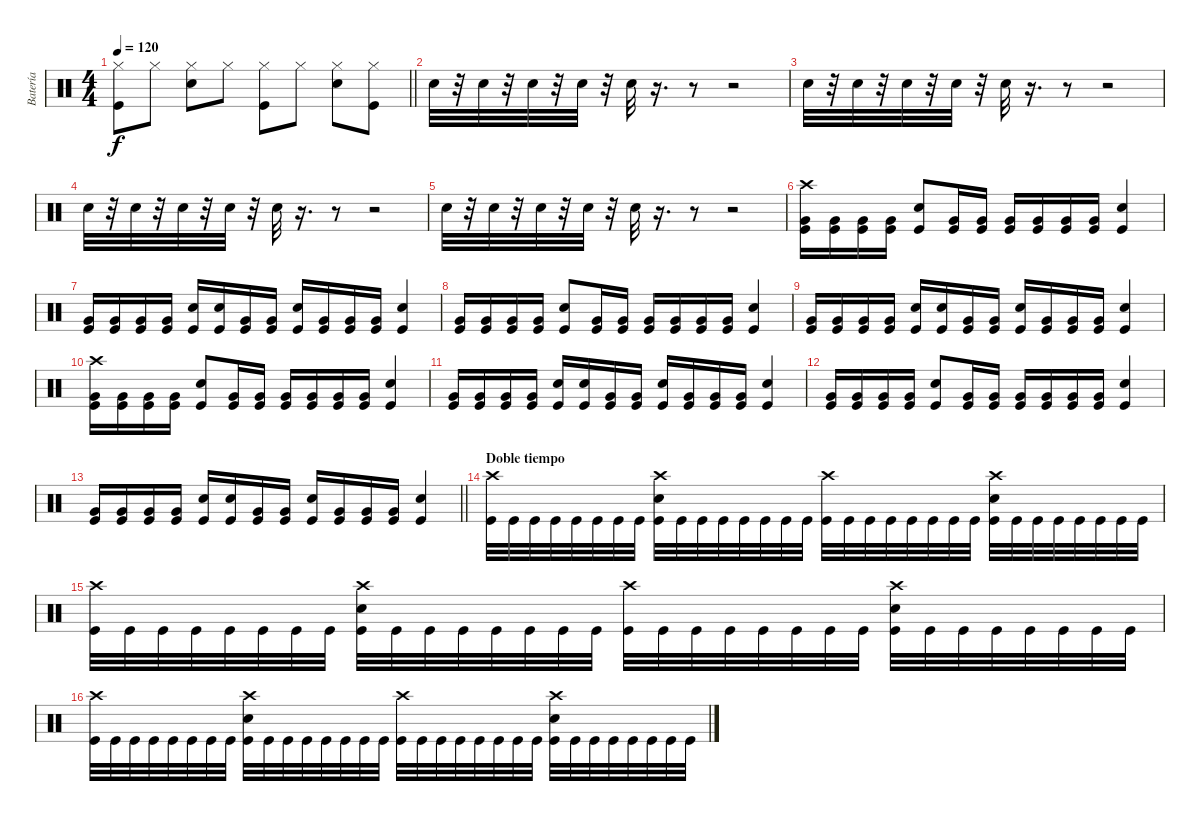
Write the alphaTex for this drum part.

\track ("Batería" "Batería") {instrument percussion}
\staff {score}
\articulation defaults
\ts (4 4)
\tempo 120
\clef neutral
\barLineRight lightlight
\ks c
("Kick (hit)" "Hi-Hat (closed)").8{dy f} "Hi-Hat (closed)".8 ("Electric Snare (hit)" "Hi-Hat (closed)").8 "Hi-Hat (closed)".8 ("Kick (hit)" "Hi-Hat (closed)").8 "Hi-Hat (closed)".8 ("Electric Snare (hit)" "Hi-Hat (closed)").8 ("Kick (hit)" "Hi-Hat (closed)").8 |
"Electric Snare (hit)".32 r.32 "Electric Snare (hit)".32 r.32 "Electric Snare (hit)".32 r.32 "Electric Snare (hit)".32 r.32 "Electric Snare (hit)".32 r.16{d} r.8 r.2 |
"Electric Snare (hit)".32 r.32 "Electric Snare (hit)".32 r.32 "Electric Snare (hit)".32 r.32 "Electric Snare (hit)".32 r.32 "Electric Snare (hit)".32 r.16{d} r.8 r.2 |
"Electric Snare (hit)".32 r.32 "Electric Snare (hit)".32 r.32 "Electric Snare (hit)".32 r.32 "Electric Snare (hit)".32 r.32 "Electric Snare (hit)".32 r.16{d} r.8 r.2 |
"Electric Snare (hit)".32 r.32 "Electric Snare (hit)".32 r.32 "Electric Snare (hit)".32 r.32 "Electric Snare (hit)".32 r.32 "Electric Snare (hit)".32 r.16{d} r.8 r.2 |
("Kick (hit)" "Very Low Tom (hit)" "Crash high (hit)").16 ("Kick (hit)" "Very Low Tom (hit)").16 ("Kick (hit)" "Very Low Tom (hit)").16 ("Kick (hit)" "Very Low Tom (hit)").16 ("Kick (hit)" "Electric Snare (hit)").8 ("Kick (hit)" "Very Low Tom (hit)").16 ("Kick (hit)" "Very Low Tom (hit)").16 ("Kick (hit)" "Very Low Tom (hit)").16 ("Kick (hit)" "Very Low Tom (hit)").16 ("Kick (hit)" "Very Low Tom (hit)").16 ("Kick (hit)" "Very Low Tom (hit)").16 ("Kick (hit)" "Electric Snare (hit)").4 |
("Kick (hit)" "Very Low Tom (hit)").16 ("Kick (hit)" "Very Low Tom (hit)").16 ("Kick (hit)" "Very Low Tom (hit)").16 ("Kick (hit)" "Very Low Tom (hit)").16 ("Kick (hit)" "Electric Snare (hit)").16 ("Kick (hit)" "Electric Snare (hit)").16 ("Kick (hit)" "Very Low Tom (hit)").16 ("Kick (hit)" "Very Low Tom (hit)").16 ("Kick (hit)" "Electric Snare (hit)").16 ("Kick (hit)" "Very Low Tom (hit)").16 ("Kick (hit)" "Very Low Tom (hit)").16 ("Kick (hit)" "Very Low Tom (hit)").16 ("Kick (hit)" "Electric Snare (hit)").4 |
("Kick (hit)" "Very Low Tom (hit)").16 ("Kick (hit)" "Very Low Tom (hit)").16 ("Kick (hit)" "Very Low Tom (hit)").16 ("Kick (hit)" "Very Low Tom (hit)").16 ("Kick (hit)" "Electric Snare (hit)").8 ("Kick (hit)" "Very Low Tom (hit)").16 ("Kick (hit)" "Very Low Tom (hit)").16 ("Kick (hit)" "Very Low Tom (hit)").16 ("Kick (hit)" "Very Low Tom (hit)").16 ("Kick (hit)" "Very Low Tom (hit)").16 ("Kick (hit)" "Very Low Tom (hit)").16 ("Kick (hit)" "Electric Snare (hit)").4 |
("Kick (hit)" "Very Low Tom (hit)").16 ("Kick (hit)" "Very Low Tom (hit)").16 ("Kick (hit)" "Very Low Tom (hit)").16 ("Kick (hit)" "Very Low Tom (hit)").16 ("Kick (hit)" "Electric Snare (hit)").16 ("Kick (hit)" "Electric Snare (hit)").16 ("Kick (hit)" "Very Low Tom (hit)").16 ("Kick (hit)" "Very Low Tom (hit)").16 ("Kick (hit)" "Electric Snare (hit)").16 ("Kick (hit)" "Very Low Tom (hit)").16 ("Kick (hit)" "Very Low Tom (hit)").16 ("Kick (hit)" "Very Low Tom (hit)").16 ("Kick (hit)" "Electric Snare (hit)").4 |
("Kick (hit)" "Very Low Tom (hit)" "Crash high (hit)").16 ("Kick (hit)" "Very Low Tom (hit)").16 ("Kick (hit)" "Very Low Tom (hit)").16 ("Kick (hit)" "Very Low Tom (hit)").16 ("Kick (hit)" "Electric Snare (hit)").8 ("Kick (hit)" "Very Low Tom (hit)").16 ("Kick (hit)" "Very Low Tom (hit)").16 ("Kick (hit)" "Very Low Tom (hit)").16 ("Kick (hit)" "Very Low Tom (hit)").16 ("Kick (hit)" "Very Low Tom (hit)").16 ("Kick (hit)" "Very Low Tom (hit)").16 ("Kick (hit)" "Electric Snare (hit)").4 |
("Kick (hit)" "Very Low Tom (hit)").16 ("Kick (hit)" "Very Low Tom (hit)").16 ("Kick (hit)" "Very Low Tom (hit)").16 ("Kick (hit)" "Very Low Tom (hit)").16 ("Kick (hit)" "Electric Snare (hit)").16 ("Kick (hit)" "Electric Snare (hit)").16 ("Kick (hit)" "Very Low Tom (hit)").16 ("Kick (hit)" "Very Low Tom (hit)").16 ("Kick (hit)" "Electric Snare (hit)").16 ("Kick (hit)" "Very Low Tom (hit)").16 ("Kick (hit)" "Very Low Tom (hit)").16 ("Kick (hit)" "Very Low Tom (hit)").16 ("Kick (hit)" "Electric Snare (hit)").4 |
("Kick (hit)" "Very Low Tom (hit)").16 ("Kick (hit)" "Very Low Tom (hit)").16 ("Kick (hit)" "Very Low Tom (hit)").16 ("Kick (hit)" "Very Low Tom (hit)").16 ("Kick (hit)" "Electric Snare (hit)").8 ("Kick (hit)" "Very Low Tom (hit)").16 ("Kick (hit)" "Very Low Tom (hit)").16 ("Kick (hit)" "Very Low Tom (hit)").16 ("Kick (hit)" "Very Low Tom (hit)").16 ("Kick (hit)" "Very Low Tom (hit)").16 ("Kick (hit)" "Very Low Tom (hit)").16 ("Kick (hit)" "Electric Snare (hit)").4 |
\barLineRight lightlight
("Kick (hit)" "Very Low Tom (hit)").16 ("Kick (hit)" "Very Low Tom (hit)").16 ("Kick (hit)" "Very Low Tom (hit)").16 ("Kick (hit)" "Very Low Tom (hit)").16 ("Kick (hit)" "Electric Snare (hit)").16 ("Kick (hit)" "Electric Snare (hit)").16 ("Kick (hit)" "Very Low Tom (hit)").16 ("Kick (hit)" "Very Low Tom (hit)").16 ("Kick (hit)" "Electric Snare (hit)").16 ("Kick (hit)" "Very Low Tom (hit)").16 ("Kick (hit)" "Very Low Tom (hit)").16 ("Kick (hit)" "Very Low Tom (hit)").16 ("Kick (hit)" "Electric Snare (hit)").4 |
\section ("" "Doble tiempo")
("Kick (hit)" "Crash high (hit)").32 "Kick (hit)".32 "Kick (hit)".32 "Kick (hit)".32 "Kick (hit)".32 "Kick (hit)".32 "Kick (hit)".32 "Kick (hit)".32 ("Kick (hit)" "Crash high (hit)" "Electric Snare (hit)").32 "Kick (hit)".32 "Kick (hit)".32 "Kick (hit)".32 "Kick (hit)".32 "Kick (hit)".32 "Kick (hit)".32 "Kick (hit)".32 ("Kick (hit)" "Crash high (hit)").32 "Kick (hit)".32 "Kick (hit)".32 "Kick (hit)".32 "Kick (hit)".32 "Kick (hit)".32 "Kick (hit)".32 "Kick (hit)".32 ("Kick (hit)" "Crash high (hit)" "Electric Snare (hit)").32 "Kick (hit)".32 "Kick (hit)".32 "Kick (hit)".32 "Kick (hit)".32 "Kick (hit)".32 "Kick (hit)".32 "Kick (hit)".32 |
("Kick (hit)" "Crash high (hit)").32 "Kick (hit)".32 "Kick (hit)".32 "Kick (hit)".32 "Kick (hit)".32 "Kick (hit)".32 "Kick (hit)".32 "Kick (hit)".32 ("Kick (hit)" "Crash high (hit)" "Electric Snare (hit)").32 "Kick (hit)".32 "Kick (hit)".32 "Kick (hit)".32 "Kick (hit)".32 "Kick (hit)".32 "Kick (hit)".32 "Kick (hit)".32 ("Kick (hit)" "Crash high (hit)").32 "Kick (hit)".32 "Kick (hit)".32 "Kick (hit)".32 "Kick (hit)".32 "Kick (hit)".32 "Kick (hit)".32 "Kick (hit)".32 ("Kick (hit)" "Crash high (hit)" "Electric Snare (hit)").32 "Kick (hit)".32 "Kick (hit)".32 "Kick (hit)".32 "Kick (hit)".32 "Kick (hit)".32 "Kick (hit)".32 "Kick (hit)".32 |
("Kick (hit)" "Crash high (hit)").32 "Kick (hit)".32 "Kick (hit)".32 "Kick (hit)".32 "Kick (hit)".32 "Kick (hit)".32 "Kick (hit)".32 "Kick (hit)".32 ("Kick (hit)" "Crash high (hit)" "Electric Snare (hit)").32 "Kick (hit)".32 "Kick (hit)".32 "Kick (hit)".32 "Kick (hit)".32 "Kick (hit)".32 "Kick (hit)".32 "Kick (hit)".32 ("Kick (hit)" "Crash high (hit)").32 "Kick (hit)".32 "Kick (hit)".32 "Kick (hit)".32 "Kick (hit)".32 "Kick (hit)".32 "Kick (hit)".32 "Kick (hit)".32 ("Kick (hit)" "Crash high (hit)" "Electric Snare (hit)").32 "Kick (hit)".32 "Kick (hit)".32 "Kick (hit)".32 "Kick (hit)".32 "Kick (hit)".32 "Kick (hit)".32 "Kick (hit)".32
